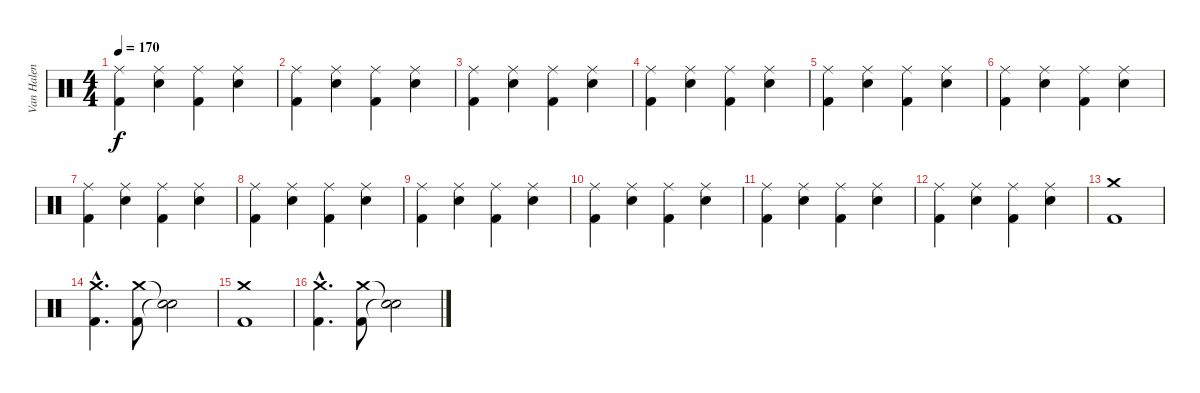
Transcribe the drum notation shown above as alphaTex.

\track ("Van Halen" "Van Halen") {instrument percussion}
\staff {score}
\articulation defaults
\ts (4 4)
\tempo 170
\clef neutral
\ks c
("Kick (hit) 2" "Ride (middle)").4{dy f} ("Snare (hit) 2" "Ride (middle)").4 ("Kick (hit) 2" "Ride (middle)").4 ("Snare (hit) 2" "Ride (middle)").4 |
("Kick (hit) 2" "Ride (middle)").4 ("Snare (hit) 2" "Ride (middle)").4 ("Kick (hit) 2" "Ride (middle)").4 ("Snare (hit) 2" "Ride (middle)").4 |
("Kick (hit) 2" "Ride (middle)").4 ("Snare (hit) 2" "Ride (middle)").4 ("Kick (hit) 2" "Ride (middle)").4 ("Snare (hit) 2" "Ride (middle)").4 |
("Kick (hit) 2" "Ride (middle)").4 ("Snare (hit) 2" "Ride (middle)").4 ("Kick (hit) 2" "Ride (middle)").4 ("Snare (hit) 2" "Ride (middle)").4 |
("Kick (hit) 2" "Ride (middle)").4 ("Snare (hit) 2" "Ride (middle)").4 ("Kick (hit) 2" "Ride (middle)").4 ("Snare (hit) 2" "Ride (middle)").4 |
("Kick (hit) 2" "Ride (middle)").4 ("Snare (hit) 2" "Ride (middle)").4 ("Kick (hit) 2" "Ride (middle)").4 ("Snare (hit) 2" "Ride (middle)").4 |
("Kick (hit) 2" "Ride (middle)").4 ("Snare (hit) 2" "Ride (middle)").4 ("Kick (hit) 2" "Ride (middle)").4 ("Snare (hit) 2" "Ride (middle)").4 |
("Kick (hit) 2" "Ride (middle)").4 ("Snare (hit) 2" "Ride (middle)").4 ("Kick (hit) 2" "Ride (middle)").4 ("Snare (hit) 2" "Ride (middle)").4 |
("Kick (hit) 2" "Ride (middle)").4 ("Snare (hit) 2" "Ride (middle)").4 ("Kick (hit) 2" "Ride (middle)").4 ("Snare (hit) 2" "Ride (middle)").4 |
("Kick (hit) 2" "Ride (middle)").4 ("Snare (hit) 2" "Ride (middle)").4 ("Kick (hit) 2" "Ride (middle)").4 ("Snare (hit) 2" "Ride (middle)").4 |
("Kick (hit) 2" "Ride (middle)").4 ("Snare (hit) 2" "Ride (middle)").4 ("Kick (hit) 2" "Ride (middle)").4 ("Snare (hit) 2" "Ride (middle)").4 |
("Kick (hit) 2" "Ride (middle)").4 ("Snare (hit) 2" "Ride (middle)").4 ("Kick (hit) 2" "Ride (middle)").4 ("Snare (hit) 2" "Ride (middle)").4 |
("Kick (hit) 2" "Crash medium (hit)").1 |
("Kick (hit) 2"{hac} "Crash medium (hit)"{hac}).4{d} ("Kick (hit) 2" "Crash medium (hit)").8 ("Snare (hit)"{t} "Snare (hit)"{t}).2 |
("Kick (hit) 2" "Crash medium (hit)").1 |
("Kick (hit) 2"{hac} "Crash medium (hit)"{hac}).4{d} ("Kick (hit) 2" "Crash medium (hit)").8 ("Snare (hit)"{t} "Snare (hit)"{t}).2
